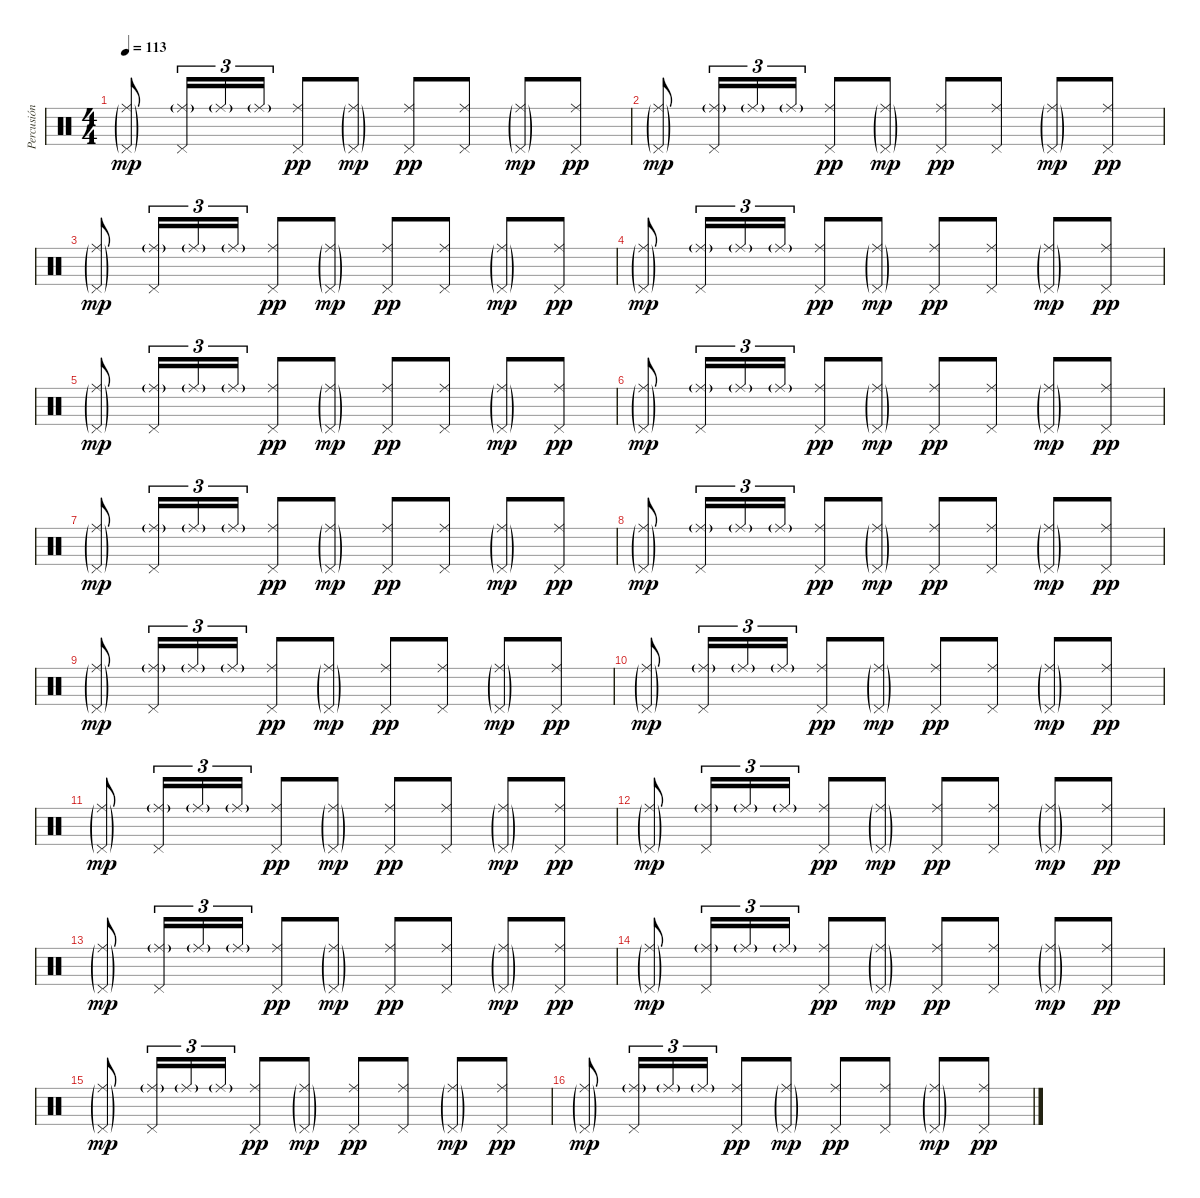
\track ("Percusión" "Percusión") {instrument percussion}
\staff {score}
\articulation defaults
\ts (4 4)
\tempo 113
\clef neutral
\ks c
("Pedal Hi-Hat (hit)"{g} "Ride (middle)"{g}).8{dy mp} ("Pedal Hi-Hat (hit)" "Ride (middle)"{g}).16{tu (3 2)} "Ride (middle)"{g}.16{tu (3 2)} "Ride (middle)"{g}.16{tu (3 2)} ("Pedal Hi-Hat (hit)" "Ride (middle)").8{dy pp} ("Pedal Hi-Hat (hit)"{g} "Ride (middle)"{g}).8{dy mp} ("Pedal Hi-Hat (hit)" "Ride (middle)").8{dy pp} ("Pedal Hi-Hat (hit)" "Ride (middle)").8 ("Pedal Hi-Hat (hit)"{g} "Ride (middle)"{g}).8{dy mp} ("Pedal Hi-Hat (hit)" "Ride (middle)").8{dy pp} |
("Pedal Hi-Hat (hit)"{g} "Ride (middle)"{g}).8{dy mp} ("Pedal Hi-Hat (hit)" "Ride (middle)"{g}).16{tu (3 2)} "Ride (middle)"{g}.16{tu (3 2)} "Ride (middle)"{g}.16{tu (3 2)} ("Pedal Hi-Hat (hit)" "Ride (middle)").8{dy pp} ("Pedal Hi-Hat (hit)"{g} "Ride (middle)"{g}).8{dy mp} ("Pedal Hi-Hat (hit)" "Ride (middle)").8{dy pp} ("Pedal Hi-Hat (hit)" "Ride (middle)").8 ("Pedal Hi-Hat (hit)"{g} "Ride (middle)"{g}).8{dy mp} ("Pedal Hi-Hat (hit)" "Ride (middle)").8{dy pp} |
("Pedal Hi-Hat (hit)"{g} "Ride (middle)"{g}).8{dy mp} ("Pedal Hi-Hat (hit)" "Ride (middle)"{g}).16{tu (3 2)} "Ride (middle)"{g}.16{tu (3 2)} "Ride (middle)"{g}.16{tu (3 2)} ("Pedal Hi-Hat (hit)" "Ride (middle)").8{dy pp} ("Pedal Hi-Hat (hit)"{g} "Ride (middle)"{g}).8{dy mp} ("Pedal Hi-Hat (hit)" "Ride (middle)").8{dy pp} ("Pedal Hi-Hat (hit)" "Ride (middle)").8 ("Pedal Hi-Hat (hit)"{g} "Ride (middle)"{g}).8{dy mp} ("Pedal Hi-Hat (hit)" "Ride (middle)").8{dy pp} |
("Pedal Hi-Hat (hit)"{g} "Ride (middle)"{g}).8{dy mp} ("Pedal Hi-Hat (hit)" "Ride (middle)"{g}).16{tu (3 2)} "Ride (middle)"{g}.16{tu (3 2)} "Ride (middle)"{g}.16{tu (3 2)} ("Pedal Hi-Hat (hit)" "Ride (middle)").8{dy pp} ("Pedal Hi-Hat (hit)"{g} "Ride (middle)"{g}).8{dy mp} ("Pedal Hi-Hat (hit)" "Ride (middle)").8{dy pp} ("Pedal Hi-Hat (hit)" "Ride (middle)").8 ("Pedal Hi-Hat (hit)"{g} "Ride (middle)"{g}).8{dy mp} ("Pedal Hi-Hat (hit)" "Ride (middle)").8{dy pp} |
("Pedal Hi-Hat (hit)"{g} "Ride (middle)"{g}).8{dy mp} ("Pedal Hi-Hat (hit)" "Ride (middle)"{g}).16{tu (3 2)} "Ride (middle)"{g}.16{tu (3 2)} "Ride (middle)"{g}.16{tu (3 2)} ("Pedal Hi-Hat (hit)" "Ride (middle)").8{dy pp} ("Pedal Hi-Hat (hit)"{g} "Ride (middle)"{g}).8{dy mp} ("Pedal Hi-Hat (hit)" "Ride (middle)").8{dy pp} ("Pedal Hi-Hat (hit)" "Ride (middle)").8 ("Pedal Hi-Hat (hit)"{g} "Ride (middle)"{g}).8{dy mp} ("Pedal Hi-Hat (hit)" "Ride (middle)").8{dy pp} |
("Pedal Hi-Hat (hit)"{g} "Ride (middle)"{g}).8{dy mp} ("Pedal Hi-Hat (hit)" "Ride (middle)"{g}).16{tu (3 2)} "Ride (middle)"{g}.16{tu (3 2)} "Ride (middle)"{g}.16{tu (3 2)} ("Pedal Hi-Hat (hit)" "Ride (middle)").8{dy pp} ("Pedal Hi-Hat (hit)"{g} "Ride (middle)"{g}).8{dy mp} ("Pedal Hi-Hat (hit)" "Ride (middle)").8{dy pp} ("Pedal Hi-Hat (hit)" "Ride (middle)").8 ("Pedal Hi-Hat (hit)"{g} "Ride (middle)"{g}).8{dy mp} ("Pedal Hi-Hat (hit)" "Ride (middle)").8{dy pp} |
("Pedal Hi-Hat (hit)"{g} "Ride (middle)"{g}).8{dy mp} ("Pedal Hi-Hat (hit)" "Ride (middle)"{g}).16{tu (3 2)} "Ride (middle)"{g}.16{tu (3 2)} "Ride (middle)"{g}.16{tu (3 2)} ("Pedal Hi-Hat (hit)" "Ride (middle)").8{dy pp} ("Pedal Hi-Hat (hit)"{g} "Ride (middle)"{g}).8{dy mp} ("Pedal Hi-Hat (hit)" "Ride (middle)").8{dy pp} ("Pedal Hi-Hat (hit)" "Ride (middle)").8 ("Pedal Hi-Hat (hit)"{g} "Ride (middle)"{g}).8{dy mp} ("Pedal Hi-Hat (hit)" "Ride (middle)").8{dy pp} |
("Pedal Hi-Hat (hit)"{g} "Ride (middle)"{g}).8{dy mp} ("Pedal Hi-Hat (hit)" "Ride (middle)"{g}).16{tu (3 2)} "Ride (middle)"{g}.16{tu (3 2)} "Ride (middle)"{g}.16{tu (3 2)} ("Pedal Hi-Hat (hit)" "Ride (middle)").8{dy pp} ("Pedal Hi-Hat (hit)"{g} "Ride (middle)"{g}).8{dy mp} ("Pedal Hi-Hat (hit)" "Ride (middle)").8{dy pp} ("Pedal Hi-Hat (hit)" "Ride (middle)").8 ("Pedal Hi-Hat (hit)"{g} "Ride (middle)"{g}).8{dy mp} ("Pedal Hi-Hat (hit)" "Ride (middle)").8{dy pp} |
("Pedal Hi-Hat (hit)"{g} "Ride (middle)"{g}).8{dy mp} ("Pedal Hi-Hat (hit)" "Ride (middle)"{g}).16{tu (3 2)} "Ride (middle)"{g}.16{tu (3 2)} "Ride (middle)"{g}.16{tu (3 2)} ("Pedal Hi-Hat (hit)" "Ride (middle)").8{dy pp} ("Pedal Hi-Hat (hit)"{g} "Ride (middle)"{g}).8{dy mp} ("Pedal Hi-Hat (hit)" "Ride (middle)").8{dy pp} ("Pedal Hi-Hat (hit)" "Ride (middle)").8 ("Pedal Hi-Hat (hit)"{g} "Ride (middle)"{g}).8{dy mp} ("Pedal Hi-Hat (hit)" "Ride (middle)").8{dy pp} |
("Pedal Hi-Hat (hit)"{g} "Ride (middle)"{g}).8{dy mp} ("Pedal Hi-Hat (hit)" "Ride (middle)"{g}).16{tu (3 2)} "Ride (middle)"{g}.16{tu (3 2)} "Ride (middle)"{g}.16{tu (3 2)} ("Pedal Hi-Hat (hit)" "Ride (middle)").8{dy pp} ("Pedal Hi-Hat (hit)"{g} "Ride (middle)"{g}).8{dy mp} ("Pedal Hi-Hat (hit)" "Ride (middle)").8{dy pp} ("Pedal Hi-Hat (hit)" "Ride (middle)").8 ("Pedal Hi-Hat (hit)"{g} "Ride (middle)"{g}).8{dy mp} ("Pedal Hi-Hat (hit)" "Ride (middle)").8{dy pp} |
("Pedal Hi-Hat (hit)"{g} "Ride (middle)"{g}).8{dy mp} ("Pedal Hi-Hat (hit)" "Ride (middle)"{g}).16{tu (3 2)} "Ride (middle)"{g}.16{tu (3 2)} "Ride (middle)"{g}.16{tu (3 2)} ("Pedal Hi-Hat (hit)" "Ride (middle)").8{dy pp} ("Pedal Hi-Hat (hit)"{g} "Ride (middle)"{g}).8{dy mp} ("Pedal Hi-Hat (hit)" "Ride (middle)").8{dy pp} ("Pedal Hi-Hat (hit)" "Ride (middle)").8 ("Pedal Hi-Hat (hit)"{g} "Ride (middle)"{g}).8{dy mp} ("Pedal Hi-Hat (hit)" "Ride (middle)").8{dy pp} |
("Pedal Hi-Hat (hit)"{g} "Ride (middle)"{g}).8{dy mp} ("Pedal Hi-Hat (hit)" "Ride (middle)"{g}).16{tu (3 2)} "Ride (middle)"{g}.16{tu (3 2)} "Ride (middle)"{g}.16{tu (3 2)} ("Pedal Hi-Hat (hit)" "Ride (middle)").8{dy pp} ("Pedal Hi-Hat (hit)"{g} "Ride (middle)"{g}).8{dy mp} ("Pedal Hi-Hat (hit)" "Ride (middle)").8{dy pp} ("Pedal Hi-Hat (hit)" "Ride (middle)").8 ("Pedal Hi-Hat (hit)"{g} "Ride (middle)"{g}).8{dy mp} ("Pedal Hi-Hat (hit)" "Ride (middle)").8{dy pp} |
("Pedal Hi-Hat (hit)"{g} "Ride (middle)"{g}).8{dy mp} ("Pedal Hi-Hat (hit)" "Ride (middle)"{g}).16{tu (3 2)} "Ride (middle)"{g}.16{tu (3 2)} "Ride (middle)"{g}.16{tu (3 2)} ("Pedal Hi-Hat (hit)" "Ride (middle)").8{dy pp} ("Pedal Hi-Hat (hit)"{g} "Ride (middle)"{g}).8{dy mp} ("Pedal Hi-Hat (hit)" "Ride (middle)").8{dy pp} ("Pedal Hi-Hat (hit)" "Ride (middle)").8 ("Pedal Hi-Hat (hit)"{g} "Ride (middle)"{g}).8{dy mp} ("Pedal Hi-Hat (hit)" "Ride (middle)").8{dy pp} |
("Pedal Hi-Hat (hit)"{g} "Ride (middle)"{g}).8{dy mp} ("Pedal Hi-Hat (hit)" "Ride (middle)"{g}).16{tu (3 2)} "Ride (middle)"{g}.16{tu (3 2)} "Ride (middle)"{g}.16{tu (3 2)} ("Pedal Hi-Hat (hit)" "Ride (middle)").8{dy pp} ("Pedal Hi-Hat (hit)"{g} "Ride (middle)"{g}).8{dy mp} ("Pedal Hi-Hat (hit)" "Ride (middle)").8{dy pp} ("Pedal Hi-Hat (hit)" "Ride (middle)").8 ("Pedal Hi-Hat (hit)"{g} "Ride (middle)"{g}).8{dy mp} ("Pedal Hi-Hat (hit)" "Ride (middle)").8{dy pp} |
("Pedal Hi-Hat (hit)"{g} "Ride (middle)"{g}).8{dy mp} ("Pedal Hi-Hat (hit)" "Ride (middle)"{g}).16{tu (3 2)} "Ride (middle)"{g}.16{tu (3 2)} "Ride (middle)"{g}.16{tu (3 2)} ("Pedal Hi-Hat (hit)" "Ride (middle)").8{dy pp} ("Pedal Hi-Hat (hit)"{g} "Ride (middle)"{g}).8{dy mp} ("Pedal Hi-Hat (hit)" "Ride (middle)").8{dy pp} ("Pedal Hi-Hat (hit)" "Ride (middle)").8 ("Pedal Hi-Hat (hit)"{g} "Ride (middle)"{g}).8{dy mp} ("Pedal Hi-Hat (hit)" "Ride (middle)").8{dy pp} |
("Pedal Hi-Hat (hit)"{g} "Ride (middle)"{g}).8{dy mp} ("Pedal Hi-Hat (hit)" "Ride (middle)"{g}).16{tu (3 2)} "Ride (middle)"{g}.16{tu (3 2)} "Ride (middle)"{g}.16{tu (3 2)} ("Pedal Hi-Hat (hit)" "Ride (middle)").8{dy pp} ("Pedal Hi-Hat (hit)"{g} "Ride (middle)"{g}).8{dy mp} ("Pedal Hi-Hat (hit)" "Ride (middle)").8{dy pp} ("Pedal Hi-Hat (hit)" "Ride (middle)").8 ("Pedal Hi-Hat (hit)"{g} "Ride (middle)"{g}).8{dy mp} ("Pedal Hi-Hat (hit)" "Ride (middle)").8{dy pp}
